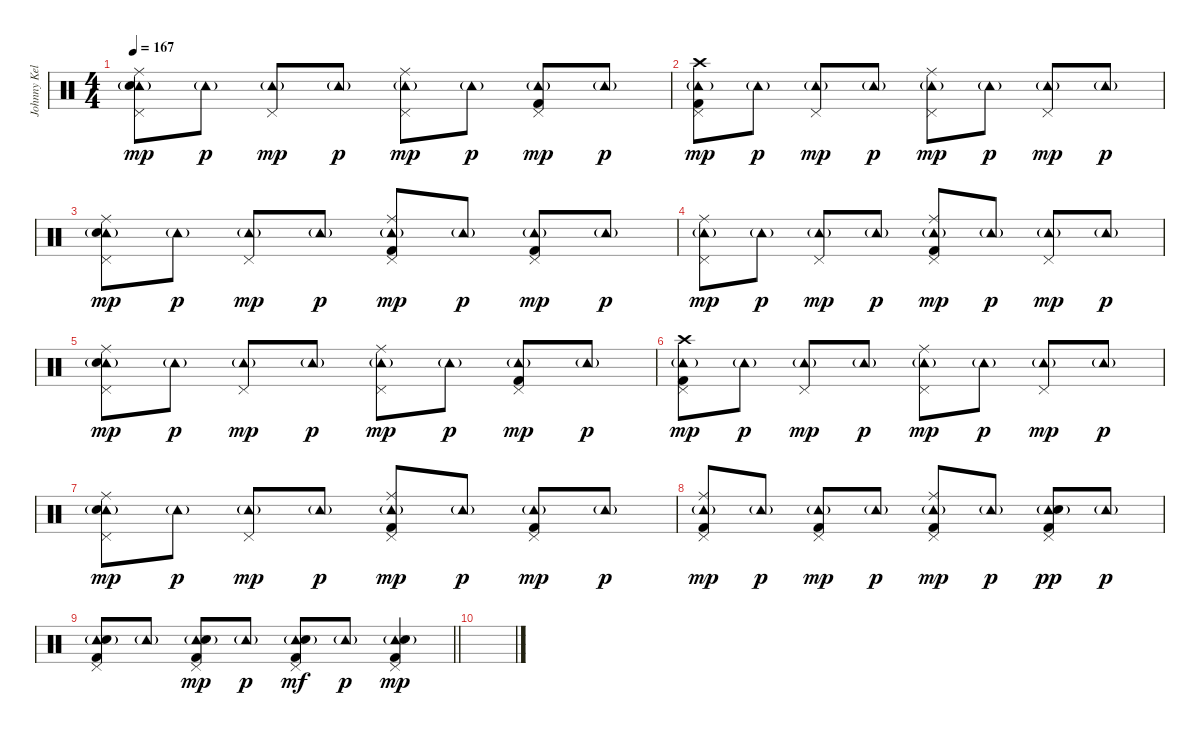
\track ("Johnny Kelly" "Johnny Kel") {instrument percussion}
\staff {score}
\articulation defaults
\ts (4 4)
\tempo 167
\clef neutral
\ks c
("Tambourine (hit)"{g} "Pedal Hi-Hat (hit)" "Ride (middle)" "Electric Snare (hit)").8{dy mp} "Tambourine (hit)"{g}.8{dy p} ("Tambourine (hit)"{g} "Pedal Hi-Hat (hit)").8{dy mp} "Tambourine (hit)"{g}.8{dy p} ("Tambourine (hit)"{g} "Pedal Hi-Hat (hit)" "Ride (middle)").8{dy mp} "Tambourine (hit)"{g}.8{dy p} ("Tambourine (hit)"{g} "Pedal Hi-Hat (hit)" "Kick (hit) 2").8{dy mp} "Tambourine (hit)"{g}.8{dy p} |
("Tambourine (hit)"{g} "Pedal Hi-Hat (hit)" "Crash high (hit)" "Kick (hit) 2").8{dy mp} "Tambourine (hit)"{g}.8{dy p} ("Tambourine (hit)"{g} "Pedal Hi-Hat (hit)").8{dy mp} "Tambourine (hit)"{g}.8{dy p} ("Tambourine (hit)"{g} "Pedal Hi-Hat (hit)" "Ride (middle)").8{dy mp} "Tambourine (hit)"{g}.8{dy p} ("Tambourine (hit)"{g} "Pedal Hi-Hat (hit)").8{dy mp} "Tambourine (hit)"{g}.8{dy p} |
("Tambourine (hit)"{g} "Pedal Hi-Hat (hit)" "Ride (middle)" "Electric Snare (hit)").8{dy mp} "Tambourine (hit)"{g}.8{dy p} ("Tambourine (hit)"{g} "Pedal Hi-Hat (hit)").8{dy mp} "Tambourine (hit)"{g}.8{dy p} ("Tambourine (hit)"{g} "Pedal Hi-Hat (hit)" "Ride (middle)" "Kick (hit) 2").8{dy mp} "Tambourine (hit)"{g}.8{dy p} ("Tambourine (hit)"{g} "Pedal Hi-Hat (hit)" "Kick (hit) 2").8{dy mp} "Tambourine (hit)"{g}.8{dy p} |
("Tambourine (hit)"{g} "Pedal Hi-Hat (hit)" "Ride (middle)").8{dy mp} "Tambourine (hit)"{g}.8{dy p} ("Tambourine (hit)"{g} "Pedal Hi-Hat (hit)").8{dy mp} "Tambourine (hit)"{g}.8{dy p} ("Tambourine (hit)"{g} "Pedal Hi-Hat (hit)" "Ride (middle)" "Kick (hit) 2").8{dy mp} "Tambourine (hit)"{g}.8{dy p} ("Tambourine (hit)"{g} "Pedal Hi-Hat (hit)").8{dy mp} "Tambourine (hit)"{g}.8{dy p} |
("Tambourine (hit)"{g} "Pedal Hi-Hat (hit)" "Ride (middle)" "Electric Snare (hit)").8{dy mp} "Tambourine (hit)"{g}.8{dy p} ("Tambourine (hit)"{g} "Pedal Hi-Hat (hit)").8{dy mp} "Tambourine (hit)"{g}.8{dy p} ("Tambourine (hit)"{g} "Pedal Hi-Hat (hit)" "Ride (middle)").8{dy mp} "Tambourine (hit)"{g}.8{dy p} ("Tambourine (hit)"{g} "Pedal Hi-Hat (hit)" "Kick (hit) 2").8{dy mp} "Tambourine (hit)"{g}.8{dy p} |
("Tambourine (hit)"{g} "Pedal Hi-Hat (hit)" "Crash high (hit)" "Kick (hit) 2").8{dy mp} "Tambourine (hit)"{g}.8{dy p} ("Tambourine (hit)"{g} "Pedal Hi-Hat (hit)").8{dy mp} "Tambourine (hit)"{g}.8{dy p} ("Tambourine (hit)"{g} "Pedal Hi-Hat (hit)" "Ride (middle)").8{dy mp} "Tambourine (hit)"{g}.8{dy p} ("Tambourine (hit)"{g} "Pedal Hi-Hat (hit)").8{dy mp} "Tambourine (hit)"{g}.8{dy p} |
("Tambourine (hit)"{g} "Pedal Hi-Hat (hit)" "Ride (middle)" "Electric Snare (hit)").8{dy mp} "Tambourine (hit)"{g}.8{dy p} ("Tambourine (hit)"{g} "Pedal Hi-Hat (hit)").8{dy mp} "Tambourine (hit)"{g}.8{dy p} ("Tambourine (hit)"{g} "Pedal Hi-Hat (hit)" "Ride (middle)" "Kick (hit) 2").8{dy mp} "Tambourine (hit)"{g}.8{dy p} ("Tambourine (hit)"{g} "Pedal Hi-Hat (hit)" "Kick (hit) 2").8{dy mp} "Tambourine (hit)"{g}.8{dy p} |
("Tambourine (hit)"{g} "Pedal Hi-Hat (hit)" "Ride (middle)" "Kick (hit) 2").8{dy mp} "Tambourine (hit)"{g}.8{dy p} ("Tambourine (hit)"{g} "Pedal Hi-Hat (hit)" "Kick (hit) 2").8{dy mp} "Tambourine (hit)"{g}.8{dy p} ("Tambourine (hit)"{g} "Pedal Hi-Hat (hit)" "Ride (middle)" "Kick (hit) 2").8{dy mp} "Tambourine (hit)"{g}.8{dy p} ("Tambourine (hit)"{g} "Pedal Hi-Hat (hit)" "Electric Snare (hit)" "Kick (hit) 2").8{dy pp} "Tambourine (hit)"{g}.8{dy p} |
\barLineRight lightlight
("Tambourine (hit)"{g} "Pedal Hi-Hat (hit)" "Electric Snare (hit)" "Kick (hit) 2").8 "Tambourine (hit)"{g}.8 ("Tambourine (hit)"{g} "Pedal Hi-Hat (hit)" "Electric Snare (hit)" "Kick (hit) 2").8{dy mp} "Tambourine (hit)"{g}.8{dy p} ("Tambourine (hit)"{g} "Pedal Hi-Hat (hit)" "Electric Snare (hit)" "Kick (hit) 2").8{dy mf} "Tambourine (hit)"{g}.8{dy p} ("Tambourine (hit)"{g} "Pedal Hi-Hat (hit)" "Electric Snare (hit)" "Kick (hit) 2").4{dy mp} |
\section ("" "")
